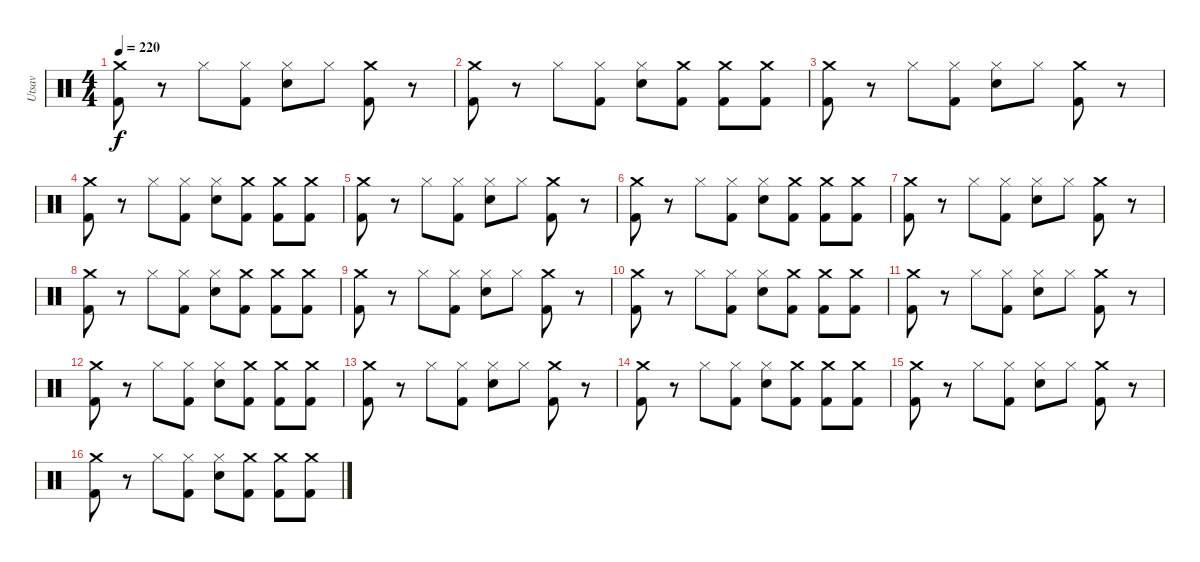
\track ("Utsav" "Utsav") {instrument percussion}
\staff {score}
\articulation defaults
\ts (4 4)
\tempo 220
\clef neutral
\ks c
("Crash medium (hit)" "Kick (hit) 2").8{dy f} r.8 "Hi-Hat (closed)".8 ("Hi-Hat (closed)" "Kick (hit) 2").8 ("Hi-Hat (closed)" "Snare (hit) 2").8 "Hi-Hat (closed)".8 ("Crash medium (hit)" "Kick (hit) 2").8 r.8 |
("Crash medium (hit)" "Kick (hit) 2").8 r.8 "Hi-Hat (closed)".8 ("Hi-Hat (closed)" "Kick (hit) 2").8 ("Hi-Hat (closed)" "Snare (hit) 2").8 ("Crash medium (hit)" "Kick (hit) 2").8 ("Crash medium (hit)" "Kick (hit) 2").8 ("Crash medium (hit)" "Kick (hit) 2").8 |
("Crash medium (hit)" "Kick (hit) 2").8 r.8 "Hi-Hat (closed)".8 ("Hi-Hat (closed)" "Kick (hit) 2").8 ("Hi-Hat (closed)" "Snare (hit) 2").8 "Hi-Hat (closed)".8 ("Crash medium (hit)" "Kick (hit) 2").8 r.8 |
("Crash medium (hit)" "Kick (hit) 2").8 r.8 "Hi-Hat (closed)".8 ("Hi-Hat (closed)" "Kick (hit) 2").8 ("Hi-Hat (closed)" "Snare (hit) 2").8 ("Crash medium (hit)" "Kick (hit) 2").8 ("Crash medium (hit)" "Kick (hit) 2").8 ("Crash medium (hit)" "Kick (hit) 2").8 |
("Crash medium (hit)" "Kick (hit) 2").8 r.8 "Hi-Hat (closed)".8 ("Hi-Hat (closed)" "Kick (hit) 2").8 ("Hi-Hat (closed)" "Snare (hit) 2").8 "Hi-Hat (closed)".8 ("Crash medium (hit)" "Kick (hit) 2").8 r.8 |
("Crash medium (hit)" "Kick (hit) 2").8 r.8 "Hi-Hat (closed)".8 ("Hi-Hat (closed)" "Kick (hit) 2").8 ("Hi-Hat (closed)" "Snare (hit) 2").8 ("Crash medium (hit)" "Kick (hit) 2").8 ("Crash medium (hit)" "Kick (hit) 2").8 ("Crash medium (hit)" "Kick (hit) 2").8 |
("Crash medium (hit)" "Kick (hit) 2").8 r.8 "Hi-Hat (closed)".8 ("Hi-Hat (closed)" "Kick (hit) 2").8 ("Hi-Hat (closed)" "Snare (hit) 2").8 "Hi-Hat (closed)".8 ("Crash medium (hit)" "Kick (hit) 2").8 r.8 |
("Crash medium (hit)" "Kick (hit) 2").8 r.8 "Hi-Hat (closed)".8 ("Hi-Hat (closed)" "Kick (hit) 2").8 ("Hi-Hat (closed)" "Snare (hit) 2").8 ("Crash medium (hit)" "Kick (hit) 2").8 ("Crash medium (hit)" "Kick (hit) 2").8 ("Crash medium (hit)" "Kick (hit) 2").8 |
("Crash medium (hit)" "Kick (hit) 2").8 r.8 "Hi-Hat (closed)".8 ("Hi-Hat (closed)" "Kick (hit) 2").8 ("Hi-Hat (closed)" "Snare (hit) 2").8 "Hi-Hat (closed)".8 ("Crash medium (hit)" "Kick (hit) 2").8 r.8 |
("Crash medium (hit)" "Kick (hit) 2").8 r.8 "Hi-Hat (closed)".8 ("Hi-Hat (closed)" "Kick (hit) 2").8 ("Hi-Hat (closed)" "Snare (hit) 2").8 ("Crash medium (hit)" "Kick (hit) 2").8 ("Crash medium (hit)" "Kick (hit) 2").8 ("Crash medium (hit)" "Kick (hit) 2").8 |
("Crash medium (hit)" "Kick (hit) 2").8 r.8 "Hi-Hat (closed)".8 ("Hi-Hat (closed)" "Kick (hit) 2").8 ("Hi-Hat (closed)" "Snare (hit) 2").8 "Hi-Hat (closed)".8 ("Crash medium (hit)" "Kick (hit) 2").8 r.8 |
("Crash medium (hit)" "Kick (hit) 2").8 r.8 "Hi-Hat (closed)".8 ("Hi-Hat (closed)" "Kick (hit) 2").8 ("Hi-Hat (closed)" "Snare (hit) 2").8 ("Crash medium (hit)" "Kick (hit) 2").8 ("Crash medium (hit)" "Kick (hit) 2").8 ("Crash medium (hit)" "Kick (hit) 2").8 |
("Crash medium (hit)" "Kick (hit) 2").8 r.8 "Hi-Hat (closed)".8 ("Hi-Hat (closed)" "Kick (hit) 2").8 ("Hi-Hat (closed)" "Snare (hit) 2").8 "Hi-Hat (closed)".8 ("Crash medium (hit)" "Kick (hit) 2").8 r.8 |
("Crash medium (hit)" "Kick (hit) 2").8 r.8 "Hi-Hat (closed)".8 ("Hi-Hat (closed)" "Kick (hit) 2").8 ("Hi-Hat (closed)" "Snare (hit) 2").8 ("Crash medium (hit)" "Kick (hit) 2").8 ("Crash medium (hit)" "Kick (hit) 2").8 ("Crash medium (hit)" "Kick (hit) 2").8 |
("Crash medium (hit)" "Kick (hit) 2").8 r.8 "Hi-Hat (closed)".8 ("Hi-Hat (closed)" "Kick (hit) 2").8 ("Hi-Hat (closed)" "Snare (hit) 2").8 "Hi-Hat (closed)".8 ("Crash medium (hit)" "Kick (hit) 2").8 r.8 |
("Crash medium (hit)" "Kick (hit) 2").8 r.8 "Hi-Hat (closed)".8 ("Hi-Hat (closed)" "Kick (hit) 2").8 ("Hi-Hat (closed)" "Snare (hit) 2").8 ("Crash medium (hit)" "Kick (hit) 2").8 ("Crash medium (hit)" "Kick (hit) 2").8 ("Crash medium (hit)" "Kick (hit) 2").8
